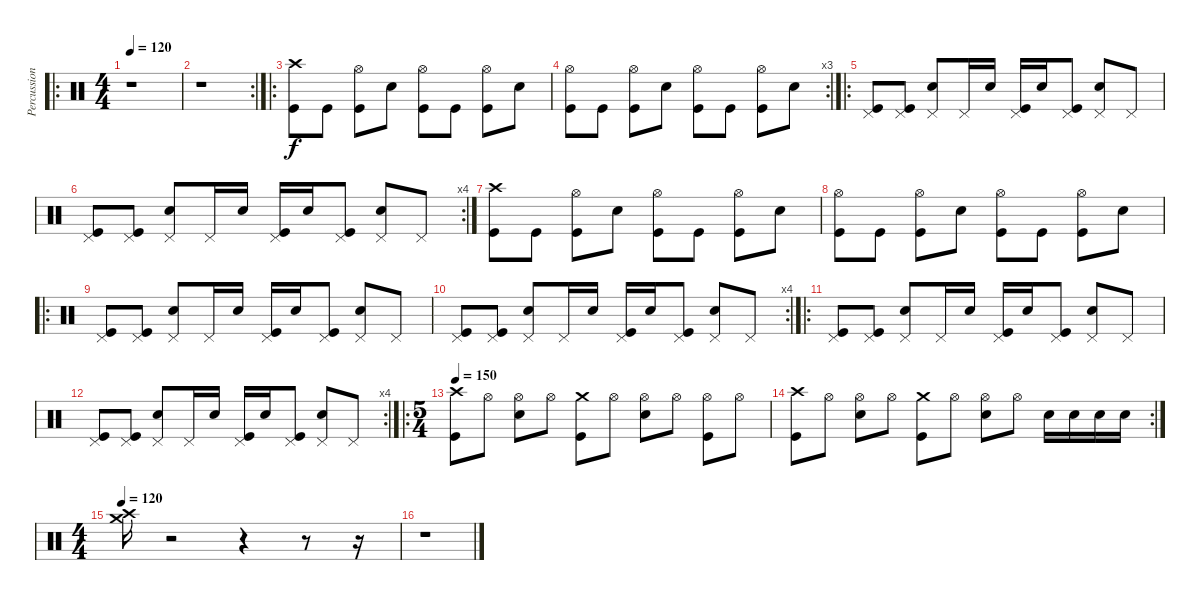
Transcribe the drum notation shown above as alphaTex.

\track ("Percussions" "Percussion") {instrument percussion}
\staff {score}
\articulation defaults
\ro
\ts (4 4)
\tempo 120
\clef neutral
\ks c
r.1{dy f} |
\rc 2
r.1 |
\ro
("Crash high (hit)" "Kick (hit)").8 "Kick (hit)".8 ("Hi-Hat (open)" "Kick (hit)").8 "Electric Snare (hit)".8 ("Hi-Hat (open)" "Kick (hit)").8 "Kick (hit)".8 ("Hi-Hat (open)" "Kick (hit)").8 "Electric Snare (hit)".8 |
\rc 3
("Hi-Hat (open)" "Kick (hit)").8 "Kick (hit)".8 ("Hi-Hat (open)" "Kick (hit)").8 "Electric Snare (hit)".8 ("Hi-Hat (open)" "Kick (hit)").8 "Kick (hit)".8 ("Hi-Hat (open)" "Kick (hit)").8 "Electric Snare (hit)".8 |
\ro
("Pedal Hi-Hat (hit)" "Kick (hit)").8 ("Pedal Hi-Hat (hit)" "Kick (hit)").8 ("Pedal Hi-Hat (hit)" "Snare (hit) 2").8 "Pedal Hi-Hat (hit)".16 "Snare (hit) 2".16 ("Pedal Hi-Hat (hit)" "Kick (hit)").16 "Snare (hit) 2".16 ("Pedal Hi-Hat (hit)" "Kick (hit)").8 ("Pedal Hi-Hat (hit)" "Snare (hit) 2").8 "Pedal Hi-Hat (hit)".8 |
\rc 4
("Pedal Hi-Hat (hit)" "Kick (hit)").8 ("Pedal Hi-Hat (hit)" "Kick (hit)").8 ("Pedal Hi-Hat (hit)" "Snare (hit) 2").8 "Pedal Hi-Hat (hit)".16 "Snare (hit) 2".16 ("Pedal Hi-Hat (hit)" "Kick (hit)").16 "Snare (hit) 2".16 ("Pedal Hi-Hat (hit)" "Kick (hit)").8 ("Pedal Hi-Hat (hit)" "Snare (hit) 2").8 "Pedal Hi-Hat (hit)".8 |
("Crash high (hit)" "Kick (hit)").8 "Kick (hit)".8 ("Hi-Hat (open)" "Kick (hit)").8 "Electric Snare (hit)".8 ("Hi-Hat (open)" "Kick (hit)").8 "Kick (hit)".8 ("Hi-Hat (open)" "Kick (hit)").8 "Electric Snare (hit)".8 |
("Hi-Hat (open)" "Kick (hit)").8 "Kick (hit)".8 ("Hi-Hat (open)" "Kick (hit)").8 "Electric Snare (hit)".8 ("Hi-Hat (open)" "Kick (hit)").8 "Kick (hit)".8 ("Hi-Hat (open)" "Kick (hit)").8 "Electric Snare (hit)".8 |
\ro
("Pedal Hi-Hat (hit)" "Kick (hit)").8 ("Pedal Hi-Hat (hit)" "Kick (hit)").8 ("Pedal Hi-Hat (hit)" "Snare (hit) 2").8 "Pedal Hi-Hat (hit)".16 "Snare (hit) 2".16 ("Pedal Hi-Hat (hit)" "Kick (hit)").16 "Snare (hit) 2".16 ("Pedal Hi-Hat (hit)" "Kick (hit)").8 ("Pedal Hi-Hat (hit)" "Snare (hit) 2").8 "Pedal Hi-Hat (hit)".8 |
\rc 4
("Pedal Hi-Hat (hit)" "Kick (hit)").8 ("Pedal Hi-Hat (hit)" "Kick (hit)").8 ("Pedal Hi-Hat (hit)" "Snare (hit) 2").8 "Pedal Hi-Hat (hit)".16 "Snare (hit) 2".16 ("Pedal Hi-Hat (hit)" "Kick (hit)").16 "Snare (hit) 2".16 ("Pedal Hi-Hat (hit)" "Kick (hit)").8 ("Pedal Hi-Hat (hit)" "Snare (hit) 2").8 "Pedal Hi-Hat (hit)".8 |
\ro
("Pedal Hi-Hat (hit)" "Kick (hit)").8 ("Pedal Hi-Hat (hit)" "Kick (hit)").8 ("Pedal Hi-Hat (hit)" "Snare (hit) 2").8 "Pedal Hi-Hat (hit)".16 "Snare (hit) 2".16 ("Pedal Hi-Hat (hit)" "Kick (hit)").16 "Snare (hit) 2".16 ("Pedal Hi-Hat (hit)" "Kick (hit)").8 ("Pedal Hi-Hat (hit)" "Snare (hit) 2").8 "Pedal Hi-Hat (hit)".8 |
\rc 4
("Pedal Hi-Hat (hit)" "Kick (hit)").8 ("Pedal Hi-Hat (hit)" "Kick (hit)").8 ("Pedal Hi-Hat (hit)" "Snare (hit) 2").8 "Pedal Hi-Hat (hit)".16 "Snare (hit) 2".16 ("Pedal Hi-Hat (hit)" "Kick (hit)").16 "Snare (hit) 2".16 ("Pedal Hi-Hat (hit)" "Kick (hit)").8 ("Pedal Hi-Hat (hit)" "Snare (hit) 2").8 "Pedal Hi-Hat (hit)".8 |
\ro
\ts (5 4)
\tempo 150
("Crash high (hit)" "Kick (hit)").8 "Hi-Hat (open)".8 ("Hi-Hat (open)" "Electric Snare (hit)").8 "Hi-Hat (open)".8 ("Crash medium (hit)" "Kick (hit)").8 "Hi-Hat (open)".8 ("Hi-Hat (open)" "Electric Snare (hit)").8 "Hi-Hat (open)".8 ("Hi-Hat (open)" "Kick (hit)").8 "Hi-Hat (open)".8 |
\rc 2
("Crash high (hit)" "Kick (hit)").8 "Hi-Hat (open)".8 ("Hi-Hat (open)" "Electric Snare (hit)").8 "Hi-Hat (open)".8 ("Crash medium (hit)" "Kick (hit)").8 "Hi-Hat (open)".8 ("Hi-Hat (open)" "Electric Snare (hit)").8 "Hi-Hat (open)".8 "Snare (hit) 2".16 "Snare (hit) 2".16 "Snare (hit) 2".16 "Snare (hit) 2".16 |
\ts (4 4)
\tempo 120
("Crash medium (hit)" "Crash high (hit)").16 r.2 r.4 r.8 r.16 |
r.1
